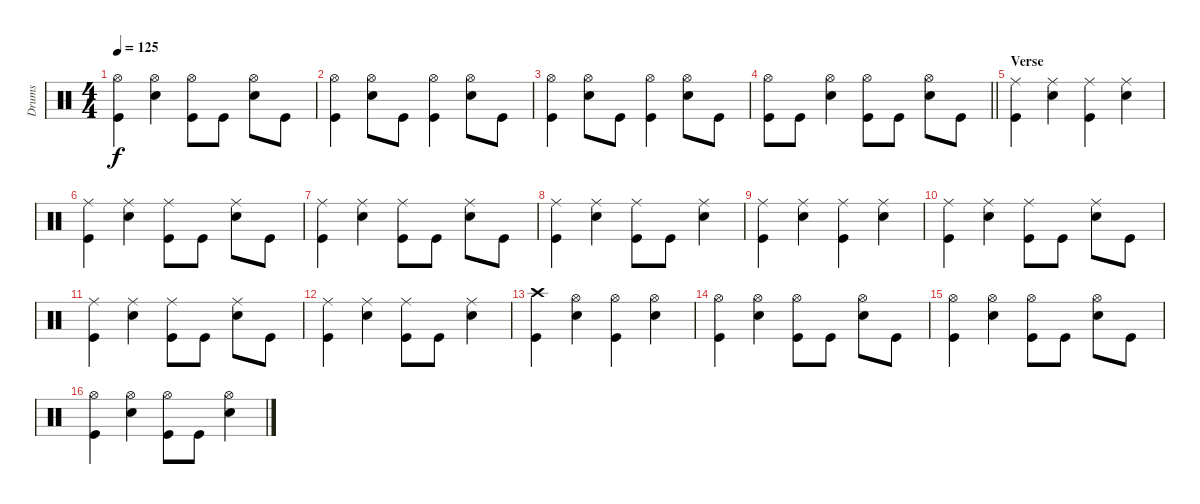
\track ("Drums" "Drums") {instrument percussion}
\staff {score}
\articulation defaults
\ts (4 4)
\tempo 125
\clef neutral
\ks c
("Hi-Hat (open)" "Kick (hit)").4{dy f} ("Hi-Hat (open)" "Electric Snare (hit)").4 ("Hi-Hat (open)" "Kick (hit)").8 "Kick (hit)".8 ("Hi-Hat (open)" "Electric Snare (hit)").8 "Kick (hit)".8 |
("Hi-Hat (open)" "Kick (hit)").4 ("Hi-Hat (open)" "Electric Snare (hit)").8 "Kick (hit)".8 ("Hi-Hat (open)" "Kick (hit)").4 ("Hi-Hat (open)" "Electric Snare (hit)").8 "Kick (hit)".8 |
("Hi-Hat (open)" "Kick (hit)").4 ("Hi-Hat (open)" "Electric Snare (hit)").8 "Kick (hit)".8 ("Hi-Hat (open)" "Kick (hit)").4 ("Hi-Hat (open)" "Electric Snare (hit)").8 "Kick (hit)".8 |
\barLineRight lightlight
("Hi-Hat (open)" "Kick (hit)").8 "Kick (hit)".8 ("Hi-Hat (open)" "Electric Snare (hit)").4 ("Hi-Hat (open)" "Kick (hit)").8 "Kick (hit)".8 ("Hi-Hat (open)" "Electric Snare (hit)").8 "Kick (hit)".8 |
\section ("" "Verse ")
("Ride (middle)" "Kick (hit)").4 ("Ride (middle)" "Electric Snare (hit)").4 ("Ride (middle)" "Kick (hit)").4 ("Ride (middle)" "Electric Snare (hit)").4 |
("Ride (middle)" "Kick (hit)").4 ("Ride (middle)" "Electric Snare (hit)").4 ("Ride (middle)" "Kick (hit)").8 "Kick (hit)".8 ("Ride (middle)" "Electric Snare (hit)").8 "Kick (hit)".8 |
("Ride (middle)" "Kick (hit)").4 ("Ride (middle)" "Electric Snare (hit)").4 ("Ride (middle)" "Kick (hit)").8 "Kick (hit)".8 ("Ride (middle)" "Electric Snare (hit)").8 "Kick (hit)".8 |
("Ride (middle)" "Kick (hit)").4 ("Ride (middle)" "Electric Snare (hit)").4 ("Ride (middle)" "Kick (hit)").8 "Kick (hit)".8 ("Ride (middle)" "Electric Snare (hit)").4 |
("Ride (middle)" "Kick (hit)").4 ("Ride (middle)" "Electric Snare (hit)").4 ("Ride (middle)" "Kick (hit)").4 ("Ride (middle)" "Electric Snare (hit)").4 |
("Ride (middle)" "Kick (hit)").4 ("Ride (middle)" "Electric Snare (hit)").4 ("Ride (middle)" "Kick (hit)").8 "Kick (hit)".8 ("Ride (middle)" "Electric Snare (hit)").8 "Kick (hit)".8 |
("Ride (middle)" "Kick (hit)").4 ("Ride (middle)" "Electric Snare (hit)").4 ("Ride (middle)" "Kick (hit)").8 "Kick (hit)".8 ("Ride (middle)" "Electric Snare (hit)").8 "Kick (hit)".8 |
("Ride (middle)" "Kick (hit)").4 ("Ride (middle)" "Electric Snare (hit)").4 ("Ride (middle)" "Kick (hit)").8 "Kick (hit)".8 ("Ride (middle)" "Electric Snare (hit)").4 |
("Crash high (hit)" "Kick (hit)").4 ("Hi-Hat (open)" "Electric Snare (hit)").4 ("Hi-Hat (open)" "Kick (hit)").4 ("Hi-Hat (open)" "Electric Snare (hit)").4 |
("Hi-Hat (open)" "Kick (hit)").4 ("Hi-Hat (open)" "Electric Snare (hit)").4 ("Hi-Hat (open)" "Kick (hit)").8 "Kick (hit)".8 ("Hi-Hat (open)" "Electric Snare (hit)").8 "Kick (hit)".8 |
("Hi-Hat (open)" "Kick (hit)").4 ("Hi-Hat (open)" "Electric Snare (hit)").4 ("Hi-Hat (open)" "Kick (hit)").8 "Kick (hit)".8 ("Hi-Hat (open)" "Electric Snare (hit)").8 "Kick (hit)".8 |
("Hi-Hat (open)" "Kick (hit)").4 ("Hi-Hat (open)" "Electric Snare (hit)").4 ("Hi-Hat (open)" "Kick (hit)").8 "Kick (hit)".8 ("Hi-Hat (open)" "Electric Snare (hit)").4
